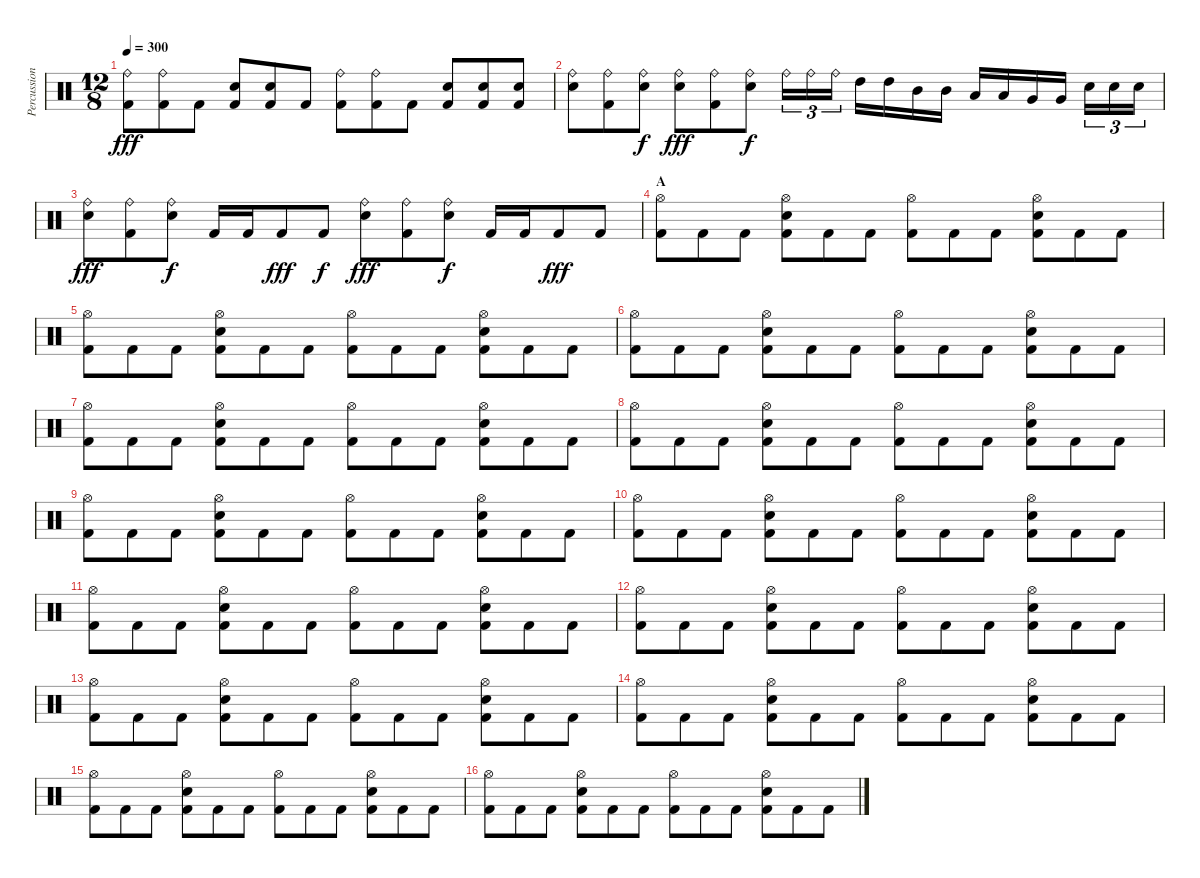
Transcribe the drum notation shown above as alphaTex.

\track ("Percussion" "Percussion") {instrument percussion}
\staff {score}
\articulation defaults
\ts (12 8)
\tempo 300
\clef neutral
\ks c
("Ride (bell)" "Kick (hit) 2").8{dy fff} ("Ride (bell)" "Kick (hit) 2").8 "Kick (hit) 2".8 ("Snare (hit) 2" "Kick (hit) 2").8 ("Snare (hit) 2" "Kick (hit) 2").8 "Kick (hit) 2".8 ("Ride (bell)" "Kick (hit) 2").8 ("Ride (bell)" "Kick (hit) 2").8 "Kick (hit) 2".8 ("Snare (hit) 2" "Kick (hit) 2").8 ("Snare (hit) 2" "Kick (hit) 2").8 ("Snare (hit) 2" "Kick (hit) 2").8 |
("Ride (bell)" "Snare (hit) 2").8 ("Ride (bell)" "Kick (hit) 2").8 ("Ride (bell)" "Snare (hit) 2").8{dy f} ("Ride (bell)" "Snare (hit) 2").8{dy fff} ("Ride (bell)" "Kick (hit) 2").8 ("Ride (bell)" "Snare (hit) 2").8{dy f} "Ride (bell)".16{tu (3 2)} "Ride (bell)".16{tu (3 2)} "Ride (bell)".16{tu (3 2)} "High Tom (hit)".16 "High Tom (hit)".16 "Mid Tom (hit)".16 "Mid Tom (hit)".16 "Low Tom (hit)".16 "Low Tom (hit)".16 "Very Low Tom (hit)".16 "Very Low Tom (hit)".16 "Snare (hit) 2".16{tu (3 2)} "Snare (hit) 2".16{tu (3 2)} "Snare (hit) 2".16{tu (3 2)} |
("Ride (bell)" "Snare (hit) 2").8{dy fff} ("Ride (bell)" "Kick (hit) 2").8 ("Ride (bell)" "Snare (hit) 2").8{dy f} "Kick (hit) 2".16 "Kick (hit) 2".16 "Kick (hit) 2".8{dy fff} "Kick (hit) 2".8{dy f} ("Ride (bell)" "Snare (hit) 2").8{dy fff} ("Ride (bell)" "Kick (hit) 2").8 ("Ride (bell)" "Snare (hit) 2").8{dy f} "Kick (hit) 2".16 "Kick (hit) 2".16 "Kick (hit) 2".8{dy fff} "Kick (hit) 2".8 |
\section ("" "A")
("Hi-Hat (open)" "Kick (hit) 2").8 "Kick (hit) 2".8 "Kick (hit) 2".8 ("Hi-Hat (open)" "Snare (hit) 2" "Kick (hit) 2").8 "Kick (hit) 2".8 "Kick (hit) 2".8 ("Hi-Hat (open)" "Kick (hit) 2").8 "Kick (hit) 2".8 "Kick (hit) 2".8 ("Hi-Hat (open)" "Snare (hit) 2" "Kick (hit) 2").8 "Kick (hit) 2".8 "Kick (hit) 2".8 |
("Hi-Hat (open)" "Kick (hit) 2").8 "Kick (hit) 2".8 "Kick (hit) 2".8 ("Hi-Hat (open)" "Snare (hit) 2" "Kick (hit) 2").8 "Kick (hit) 2".8 "Kick (hit) 2".8 ("Hi-Hat (open)" "Kick (hit) 2").8 "Kick (hit) 2".8 "Kick (hit) 2".8 ("Hi-Hat (open)" "Snare (hit) 2" "Kick (hit) 2").8 "Kick (hit) 2".8 "Kick (hit) 2".8 |
("Hi-Hat (open)" "Kick (hit) 2").8 "Kick (hit) 2".8 "Kick (hit) 2".8 ("Hi-Hat (open)" "Snare (hit) 2" "Kick (hit) 2").8 "Kick (hit) 2".8 "Kick (hit) 2".8 ("Hi-Hat (open)" "Kick (hit) 2").8 "Kick (hit) 2".8 "Kick (hit) 2".8 ("Hi-Hat (open)" "Snare (hit) 2" "Kick (hit) 2").8 "Kick (hit) 2".8 "Kick (hit) 2".8 |
("Hi-Hat (open)" "Kick (hit) 2").8 "Kick (hit) 2".8 "Kick (hit) 2".8 ("Hi-Hat (open)" "Snare (hit) 2" "Kick (hit) 2").8 "Kick (hit) 2".8 "Kick (hit) 2".8 ("Hi-Hat (open)" "Kick (hit) 2").8 "Kick (hit) 2".8 "Kick (hit) 2".8 ("Hi-Hat (open)" "Snare (hit) 2" "Kick (hit) 2").8 "Kick (hit) 2".8 "Kick (hit) 2".8 |
("Hi-Hat (open)" "Kick (hit) 2").8 "Kick (hit) 2".8 "Kick (hit) 2".8 ("Hi-Hat (open)" "Snare (hit) 2" "Kick (hit) 2").8 "Kick (hit) 2".8 "Kick (hit) 2".8 ("Hi-Hat (open)" "Kick (hit) 2").8 "Kick (hit) 2".8 "Kick (hit) 2".8 ("Hi-Hat (open)" "Snare (hit) 2" "Kick (hit) 2").8 "Kick (hit) 2".8 "Kick (hit) 2".8 |
("Hi-Hat (open)" "Kick (hit) 2").8 "Kick (hit) 2".8 "Kick (hit) 2".8 ("Hi-Hat (open)" "Snare (hit) 2" "Kick (hit) 2").8 "Kick (hit) 2".8 "Kick (hit) 2".8 ("Hi-Hat (open)" "Kick (hit) 2").8 "Kick (hit) 2".8 "Kick (hit) 2".8 ("Hi-Hat (open)" "Snare (hit) 2" "Kick (hit) 2").8 "Kick (hit) 2".8 "Kick (hit) 2".8 |
("Hi-Hat (open)" "Kick (hit) 2").8 "Kick (hit) 2".8 "Kick (hit) 2".8 ("Hi-Hat (open)" "Snare (hit) 2" "Kick (hit) 2").8 "Kick (hit) 2".8 "Kick (hit) 2".8 ("Hi-Hat (open)" "Kick (hit) 2").8 "Kick (hit) 2".8 "Kick (hit) 2".8 ("Hi-Hat (open)" "Snare (hit) 2" "Kick (hit) 2").8 "Kick (hit) 2".8 "Kick (hit) 2".8 |
("Hi-Hat (open)" "Kick (hit) 2").8 "Kick (hit) 2".8 "Kick (hit) 2".8 ("Hi-Hat (open)" "Snare (hit) 2" "Kick (hit) 2").8 "Kick (hit) 2".8 "Kick (hit) 2".8 ("Hi-Hat (open)" "Kick (hit) 2").8 "Kick (hit) 2".8 "Kick (hit) 2".8 ("Hi-Hat (open)" "Snare (hit) 2" "Kick (hit) 2").8 "Kick (hit) 2".8 "Kick (hit) 2".8 |
("Hi-Hat (open)" "Kick (hit) 2").8 "Kick (hit) 2".8 "Kick (hit) 2".8 ("Hi-Hat (open)" "Snare (hit) 2" "Kick (hit) 2").8 "Kick (hit) 2".8 "Kick (hit) 2".8 ("Hi-Hat (open)" "Kick (hit) 2").8 "Kick (hit) 2".8 "Kick (hit) 2".8 ("Hi-Hat (open)" "Snare (hit) 2" "Kick (hit) 2").8 "Kick (hit) 2".8 "Kick (hit) 2".8 |
("Hi-Hat (open)" "Kick (hit) 2").8 "Kick (hit) 2".8 "Kick (hit) 2".8 ("Hi-Hat (open)" "Snare (hit) 2" "Kick (hit) 2").8 "Kick (hit) 2".8 "Kick (hit) 2".8 ("Hi-Hat (open)" "Kick (hit) 2").8 "Kick (hit) 2".8 "Kick (hit) 2".8 ("Hi-Hat (open)" "Snare (hit) 2" "Kick (hit) 2").8 "Kick (hit) 2".8 "Kick (hit) 2".8 |
("Hi-Hat (open)" "Kick (hit) 2").8 "Kick (hit) 2".8 "Kick (hit) 2".8 ("Hi-Hat (open)" "Snare (hit) 2" "Kick (hit) 2").8 "Kick (hit) 2".8 "Kick (hit) 2".8 ("Hi-Hat (open)" "Kick (hit) 2").8 "Kick (hit) 2".8 "Kick (hit) 2".8 ("Hi-Hat (open)" "Snare (hit) 2" "Kick (hit) 2").8 "Kick (hit) 2".8 "Kick (hit) 2".8 |
("Hi-Hat (open)" "Kick (hit) 2").8 "Kick (hit) 2".8 "Kick (hit) 2".8 ("Hi-Hat (open)" "Snare (hit) 2" "Kick (hit) 2").8 "Kick (hit) 2".8 "Kick (hit) 2".8 ("Hi-Hat (open)" "Kick (hit) 2").8 "Kick (hit) 2".8 "Kick (hit) 2".8 ("Hi-Hat (open)" "Snare (hit) 2" "Kick (hit) 2").8 "Kick (hit) 2".8 "Kick (hit) 2".8 |
("Hi-Hat (open)" "Kick (hit) 2").8 "Kick (hit) 2".8 "Kick (hit) 2".8 ("Hi-Hat (open)" "Snare (hit) 2" "Kick (hit) 2").8 "Kick (hit) 2".8 "Kick (hit) 2".8 ("Hi-Hat (open)" "Kick (hit) 2").8 "Kick (hit) 2".8 "Kick (hit) 2".8 ("Hi-Hat (open)" "Snare (hit) 2" "Kick (hit) 2").8 "Kick (hit) 2".8 "Kick (hit) 2".8
